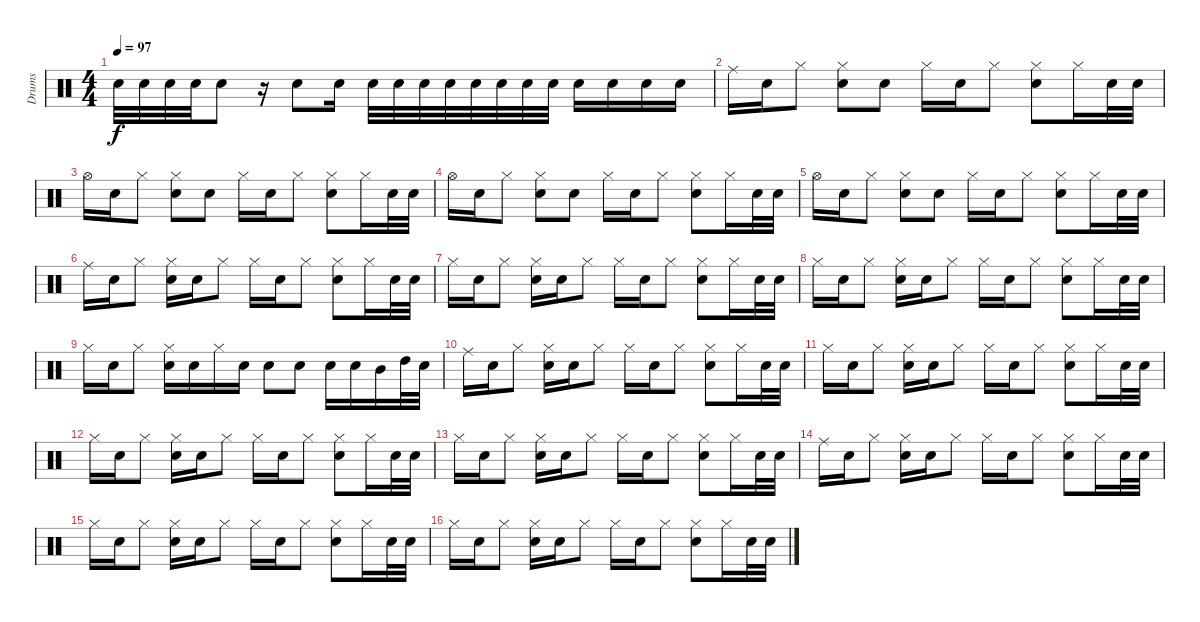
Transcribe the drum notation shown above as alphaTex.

\track ("Drums" "Drums") {instrument percussion}
\staff {score}
\articulation defaults
\ts (4 4)
\tempo 97
\clef neutral
\ks c "Snare (hit) 2".32{dy f} "Snare (hit) 2".32 "Snare (hit) 2".32 "Snare (hit) 2".32 "Snare (hit) 2".8
r.16 "Snare (hit) 2".8 "Snare (hit) 2".16 "Snare (hit) 2".32 "Snare (hit) 2".32 "Snare (hit) 2".32 "Snare (hit) 2".32 "Snare (hit) 2".32 "Snare (hit) 2".32 "Snare (hit) 2".32 "Snare (hit) 2".32 "Snare (hit) 2".16 "Snare (hit) 2".16 "Snare (hit) 2".16 "Snare (hit) 2".16 |
"Ride (middle)".16 "Snare (hit) 2".16 "Hi-Hat (closed)".8 ("Hi-Hat (closed)" "Snare (hit) 2").8 "Snare (hit) 2".8 "Hi-Hat (closed)".16 "Snare (hit) 2".16 "Hi-Hat (closed)".8 ("Hi-Hat (closed)" "Snare (hit) 2").8 "Hi-Hat (closed)".16 "Snare (hit) 2".32 "Snare (hit) 2".32 |
"Hi-Hat (open)".16 "Snare (hit) 2".16 "Hi-Hat (closed)".8 ("Hi-Hat (closed)" "Snare (hit) 2").8 "Snare (hit) 2".8 "Hi-Hat (closed)".16 "Snare (hit) 2".16 "Hi-Hat (closed)".8 ("Hi-Hat (closed)" "Snare (hit) 2").8 "Hi-Hat (closed)".16 "Snare (hit) 2".32 "Snare (hit) 2".32 |
"Hi-Hat (open)".16 "Snare (hit) 2".16 "Hi-Hat (closed)".8 ("Hi-Hat (closed)" "Snare (hit) 2").8 "Snare (hit) 2".8 "Hi-Hat (closed)".16 "Snare (hit) 2".16 "Hi-Hat (closed)".8 ("Hi-Hat (closed)" "Snare (hit) 2").8 "Hi-Hat (closed)".16 "Snare (hit) 2".32 "Snare (hit) 2".32 |
"Hi-Hat (open)".16 "Snare (hit) 2".16 "Hi-Hat (closed)".8 ("Hi-Hat (closed)" "Snare (hit) 2").8 "Snare (hit) 2".8 "Hi-Hat (closed)".16 "Snare (hit) 2".16 "Hi-Hat (closed)".8 ("Hi-Hat (closed)" "Snare (hit) 2").8 "Hi-Hat (closed)".16 "Snare (hit) 2".32 "Snare (hit) 2".32 |
"Ride (middle)".16 "Snare (hit) 2".16 "Hi-Hat (closed)".8 ("Hi-Hat (closed)" "Snare (hit) 2").16 "Snare (hit) 2".16 "Hi-Hat (closed)".8 "Hi-Hat (closed)".16 "Snare (hit) 2".16 "Hi-Hat (closed)".8 ("Hi-Hat (closed)" "Snare (hit) 2").8 "Hi-Hat (closed)".16 "Snare (hit) 2".32 "Snare (hit) 2".32 |
"Hi-Hat (closed)".16 "Snare (hit) 2".16 "Hi-Hat (closed)".8 ("Hi-Hat (closed)" "Snare (hit) 2").16 "Snare (hit) 2".16 "Hi-Hat (closed)".8 "Hi-Hat (closed)".16 "Snare (hit) 2".16 "Hi-Hat (closed)".8 ("Hi-Hat (closed)" "Snare (hit) 2").8 "Hi-Hat (closed)".16 "Snare (hit) 2".32 "Snare (hit) 2".32 |
"Hi-Hat (closed)".16 "Snare (hit) 2".16 "Hi-Hat (closed)".8 ("Hi-Hat (closed)" "Snare (hit) 2").16 "Snare (hit) 2".16 "Hi-Hat (closed)".8 "Hi-Hat (closed)".16 "Snare (hit) 2".16 "Hi-Hat (closed)".8 ("Hi-Hat (closed)" "Snare (hit) 2").8 "Hi-Hat (closed)".16 "Snare (hit) 2".32 "Snare (hit) 2".32 |
"Hi-Hat (closed)".16 "Snare (hit) 2".16 "Hi-Hat (closed)".8 ("Hi-Hat (closed)" "Snare (hit) 2").16 "Snare (hit) 2".16 "Hi-Hat (closed)".16 "Snare (hit) 2".16 "Snare (hit) 2".8 "Snare (hit) 2".8 "Snare (hit) 2".16 "Snare (hit) 2".16 "Mid Tom (hit)".16 "High Tom (hit)".32 "Snare (hit) 2".32 |
"Ride (middle)".16 "Snare (hit) 2".16 "Hi-Hat (closed)".8 ("Hi-Hat (closed)" "Snare (hit) 2").16 "Snare (hit) 2".16 "Hi-Hat (closed)".8 "Hi-Hat (closed)".16 "Snare (hit) 2".16 "Hi-Hat (closed)".8 ("Hi-Hat (closed)" "Snare (hit) 2").8 "Hi-Hat (closed)".16 "Snare (hit) 2".32 "Snare (hit) 2".32 |
"Hi-Hat (closed)".16 "Snare (hit) 2".16 "Hi-Hat (closed)".8 ("Hi-Hat (closed)" "Snare (hit) 2").16 "Snare (hit) 2".16 "Hi-Hat (closed)".8 "Hi-Hat (closed)".16 "Snare (hit) 2".16 "Hi-Hat (closed)".8 ("Hi-Hat (closed)" "Snare (hit) 2").8 "Hi-Hat (closed)".16 "Snare (hit) 2".32 "Snare (hit) 2".32 |
"Hi-Hat (closed)".16 "Snare (hit) 2".16 "Hi-Hat (closed)".8 ("Hi-Hat (closed)" "Snare (hit) 2").16 "Snare (hit) 2".16 "Hi-Hat (closed)".8 "Hi-Hat (closed)".16 "Snare (hit) 2".16 "Hi-Hat (closed)".8 ("Hi-Hat (closed)" "Snare (hit) 2").8 "Hi-Hat (closed)".16 "Snare (hit) 2".32 "Snare (hit) 2".32 |
"Hi-Hat (closed)".16 "Snare (hit) 2".16 "Hi-Hat (closed)".8 ("Hi-Hat (closed)" "Snare (hit) 2").16 "Snare (hit) 2".16 "Hi-Hat (closed)".8 "Hi-Hat (closed)".16 "Snare (hit) 2".16 "Hi-Hat (closed)".8 ("Hi-Hat (closed)" "Snare (hit) 2").8 "Hi-Hat (closed)".16 "Snare (hit) 2".32 "Snare (hit) 2".32 |
"Ride (middle)".16 "Snare (hit) 2".16 "Hi-Hat (closed)".8 ("Hi-Hat (closed)" "Snare (hit) 2").16 "Snare (hit) 2".16 "Hi-Hat (closed)".8 "Hi-Hat (closed)".16 "Snare (hit) 2".16 "Hi-Hat (closed)".8 ("Hi-Hat (closed)" "Snare (hit) 2").8 "Hi-Hat (closed)".16 "Snare (hit) 2".32 "Snare (hit) 2".32 |
"Hi-Hat (closed)".16 "Snare (hit) 2".16 "Hi-Hat (closed)".8 ("Hi-Hat (closed)" "Snare (hit) 2").16 "Snare (hit) 2".16 "Hi-Hat (closed)".8 "Hi-Hat (closed)".16 "Snare (hit) 2".16 "Hi-Hat (closed)".8 ("Hi-Hat (closed)" "Snare (hit) 2").8 "Hi-Hat (closed)".16 "Snare (hit) 2".32 "Snare (hit) 2".32 |
"Hi-Hat (closed)".16 "Snare (hit) 2".16 "Hi-Hat (closed)".8 ("Hi-Hat (closed)" "Snare (hit) 2").16 "Snare (hit) 2".16 "Hi-Hat (closed)".8 "Hi-Hat (closed)".16 "Snare (hit) 2".16 "Hi-Hat (closed)".8 ("Hi-Hat (closed)" "Snare (hit) 2").8 "Hi-Hat (closed)".16 "Snare (hit) 2".32 "Snare (hit) 2".32
